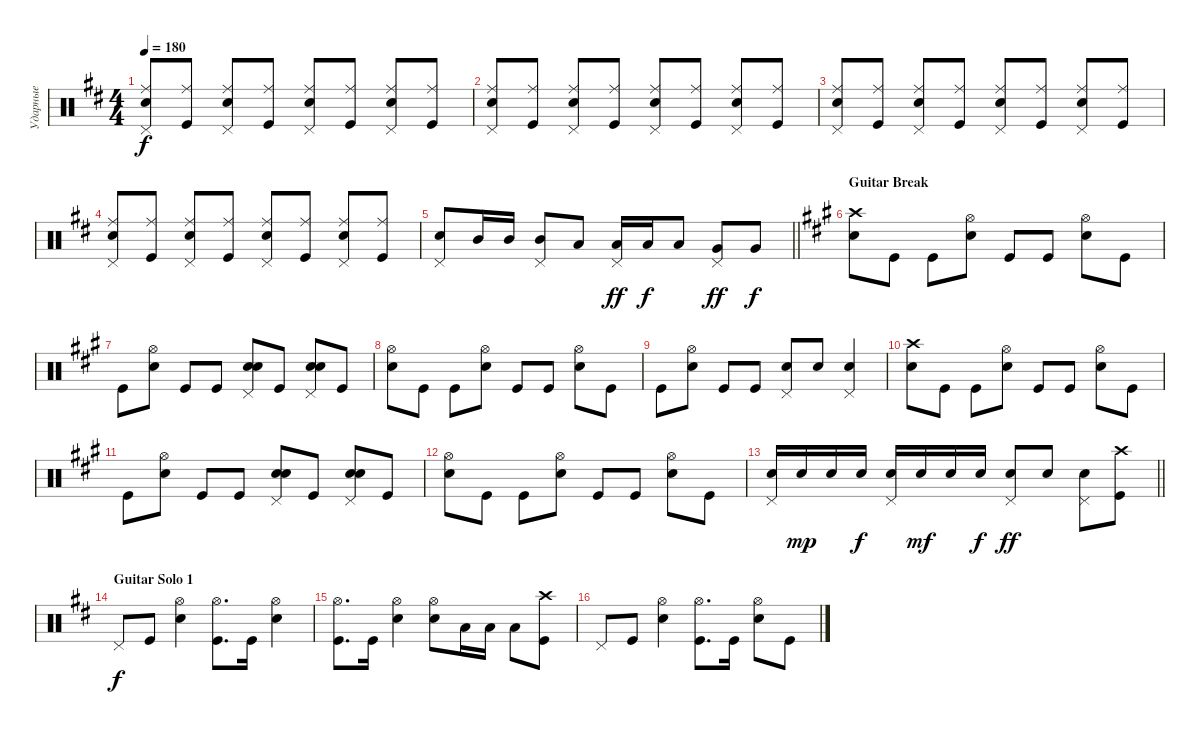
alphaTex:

\track ("Ударные" "Ударные") {instrument percussion}
\staff {score}
\articulation defaults
\ts (4 4)
\tempo 180
\clef neutral
\ks bminor
("Ride (middle)" "Snare (hit) 2" "Pedal Hi-Hat (hit)").8{dy f} ("Kick (hit)" "Ride (middle)").8 ("Pedal Hi-Hat (hit)" "Snare (hit) 2" "Ride (middle)").8 ("Kick (hit)" "Ride (middle)").8 ("Pedal Hi-Hat (hit)" "Snare (hit) 2" "Ride (middle)").8 ("Kick (hit)" "Ride (middle)").8 ("Pedal Hi-Hat (hit)" "Snare (hit) 2" "Ride (middle)").8 ("Kick (hit)" "Ride (middle)").8 |
("Ride (middle)" "Snare (hit) 2" "Pedal Hi-Hat (hit)").8 ("Kick (hit)" "Ride (middle)").8 ("Pedal Hi-Hat (hit)" "Snare (hit) 2" "Ride (middle)").8 ("Kick (hit)" "Ride (middle)").8 ("Pedal Hi-Hat (hit)" "Snare (hit) 2" "Ride (middle)").8 ("Kick (hit)" "Ride (middle)").8 ("Pedal Hi-Hat (hit)" "Snare (hit) 2" "Ride (middle)").8 ("Kick (hit)" "Ride (middle)").8 |
("Ride (middle)" "Snare (hit) 2" "Pedal Hi-Hat (hit)").8 ("Kick (hit)" "Ride (middle)").8 ("Pedal Hi-Hat (hit)" "Snare (hit) 2" "Ride (middle)").8 ("Kick (hit)" "Ride (middle)").8 ("Pedal Hi-Hat (hit)" "Snare (hit) 2" "Ride (middle)").8 ("Kick (hit)" "Ride (middle)").8 ("Pedal Hi-Hat (hit)" "Snare (hit) 2" "Ride (middle)").8 ("Kick (hit)" "Ride (middle)").8 |
("Ride (middle)" "Snare (hit) 2" "Pedal Hi-Hat (hit)").8 ("Kick (hit)" "Ride (middle)").8 ("Pedal Hi-Hat (hit)" "Snare (hit) 2" "Ride (middle)").8 ("Kick (hit)" "Ride (middle)").8 ("Pedal Hi-Hat (hit)" "Snare (hit) 2" "Ride (middle)").8 ("Kick (hit)" "Ride (middle)").8 ("Pedal Hi-Hat (hit)" "Snare (hit) 2" "Ride (middle)").8 ("Kick (hit)" "Ride (middle)").8 |
\barLineRight lightlight
("Snare (hit) 2" "Pedal Hi-Hat (hit)").8 "Mid Tom (hit)".16 "Mid Tom (hit)".16 ("Mid Tom (hit)" "Pedal Hi-Hat (hit)").8 "Low Tom (hit)".8 ("Low Tom (hit)" "Pedal Hi-Hat (hit)").16{dy ff} "Low Tom (hit)".16{dy f} "Low Tom (hit)".8 ("Very Low Tom (hit)" "Pedal Hi-Hat (hit)").8{dy ff} "Very Low Tom (hit)".8{dy f} |
\section ("" "Guitar Break")
\ks f#minor
("Snare (hit) 2" "Crash high (hit)").8 "Kick (hit)".8 "Kick (hit)".8 ("Snare (hit) 2" "Hi-Hat (open)").8 "Kick (hit)".8 "Kick (hit)".8 ("Snare (hit) 2" "Hi-Hat (open)").8 "Kick (hit)".8 |
"Kick (hit)".8 ("Snare (hit) 2" "Hi-Hat (open)").8 "Kick (hit)".8 "Kick (hit)".8 ("Snare (hit) 2" "Snare (hit) 2" "Pedal Hi-Hat (hit)").8{bd 240} "Kick (hit)".8 ("Snare (hit) 2" "Snare (hit) 2" "Pedal Hi-Hat (hit)").8{bd 240} "Kick (hit)".8 |
("Snare (hit) 2" "Hi-Hat (open)").8 "Kick (hit)".8 "Kick (hit)".8 ("Snare (hit) 2" "Hi-Hat (open)").8 "Kick (hit)".8 "Kick (hit)".8 ("Snare (hit) 2" "Hi-Hat (open)").8 "Kick (hit)".8 |
"Kick (hit)".8 ("Snare (hit) 2" "Hi-Hat (open)").8 "Kick (hit)".8 "Kick (hit)".8 ("Snare (hit) 2" "Pedal Hi-Hat (hit)").8 "Snare (hit) 2".8 ("Snare (hit) 2" "Pedal Hi-Hat (hit)").4 |
("Snare (hit) 2" "Crash high (hit)").8 "Kick (hit)".8 "Kick (hit)".8 ("Snare (hit) 2" "Hi-Hat (open)").8 "Kick (hit)".8 "Kick (hit)".8 ("Snare (hit) 2" "Hi-Hat (open)").8 "Kick (hit)".8 |
"Kick (hit)".8 ("Snare (hit) 2" "Hi-Hat (open)").8 "Kick (hit)".8 "Kick (hit)".8 ("Snare (hit) 2" "Snare (hit) 2" "Pedal Hi-Hat (hit)").8{bd 240} "Kick (hit)".8 ("Snare (hit) 2" "Snare (hit) 2" "Pedal Hi-Hat (hit)").8{bd 240} "Kick (hit)".8 |
("Snare (hit) 2" "Hi-Hat (open)").8 "Kick (hit)".8 "Kick (hit)".8 ("Snare (hit) 2" "Hi-Hat (open)").8 "Kick (hit)".8 "Kick (hit)".8 ("Snare (hit) 2" "Hi-Hat (open)").8 "Kick (hit)".8 |
\barLineRight lightlight
("Snare (hit) 2" "Pedal Hi-Hat (hit)").16 "Snare (hit) 2".16{dy mp} "Snare (hit) 2".16 "Snare (hit) 2".16{dy f} ("Snare (hit) 2" "Pedal Hi-Hat (hit)").16 "Snare (hit) 2".16{dy mf} "Snare (hit) 2".16 "Snare (hit) 2".16{dy f} ("Snare (hit) 2" "Pedal Hi-Hat (hit)").8{dy ff} "Snare (hit) 2".8 ("Snare (hit) 2" "Pedal Hi-Hat (hit)").8 ("Kick (hit)" "Crash high (hit)").8 |
\section ("" "Guitar Solo 1")
\ks bminor "Pedal Hi-Hat (hit)".8{dy f} "Kick (hit)".8
("Hi-Hat (open)" "Snare (hit) 2").4 ("Kick (hit)" "Hi-Hat (open)").8{d} "Kick (hit)".16 ("Snare (hit) 2" "Hi-Hat (open)").4 |
("Hi-Hat (open)" "Kick (hit)").8{d} "Kick (hit)".16 ("Hi-Hat (open)" "Snare (hit) 2").4 ("Snare (hit) 2" "Hi-Hat (open)").8 "Low Tom (hit)".16 "Low Tom (hit)".16 "Low Tom (hit)".8 ("Kick (hit)" "Crash high (hit)").8 |
"Pedal Hi-Hat (hit)".8 "Kick (hit)".8 ("Hi-Hat (open)" "Snare (hit) 2").4 ("Kick (hit)" "Hi-Hat (open)").8{d} "Kick (hit)".16 ("Snare (hit) 2" "Hi-Hat (open)").8 "Kick (hit)".8
